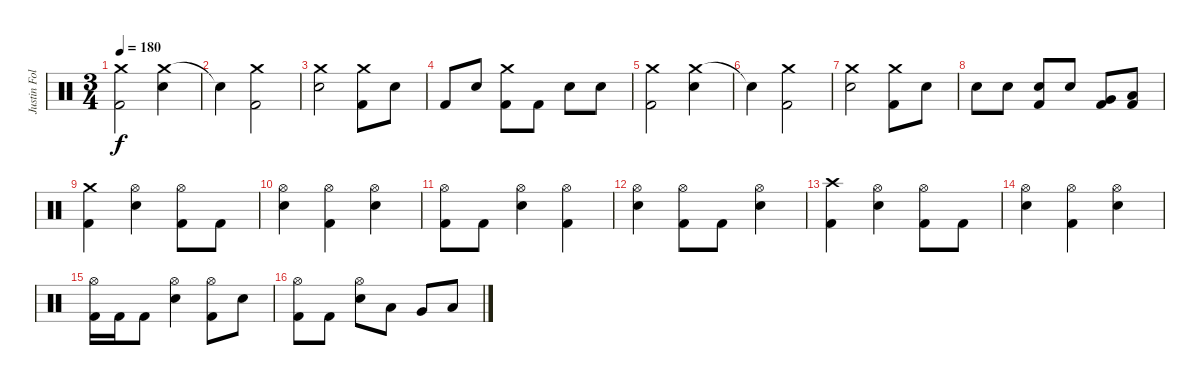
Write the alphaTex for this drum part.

\track ("Justin Foley" "Justin Fol") {instrument percussion}
\staff {score}
\articulation defaults
\ts (3 4)
\tempo 180
\clef neutral
\ks c
("Crash medium (hit)" "Kick (hit) 2").2{dy f} ("Crash medium (hit)" "Electric Snare (hit)").4 |
"Snare (hit)"{t}.4 ("Crash medium (hit)" "Kick (hit) 2").2 |
("Crash medium (hit)" "Electric Snare (hit)").2 ("Crash medium (hit)" "Kick (hit) 2").8 "Electric Snare (hit)".8 |
"Kick (hit) 2".8 "Electric Snare (hit)".8 ("Crash medium (hit)" "Kick (hit) 2").8 "Kick (hit) 2".8 "Electric Snare (hit)".8 "Electric Snare (hit)".8 |
("Crash medium (hit)" "Kick (hit) 2").2 ("Crash medium (hit)" "Electric Snare (hit)").4 |
"Snare (hit)"{t}.4 ("Crash medium (hit)" "Kick (hit) 2").2 |
("Crash medium (hit)" "Electric Snare (hit)").2 ("Crash medium (hit)" "Kick (hit) 2").8 "Electric Snare (hit)".8 |
"Electric Snare (hit)".8 "Electric Snare (hit)".8 ("Electric Snare (hit)" "Kick (hit) 2").8 "Electric Snare (hit)".8 ("Very Low Tom (hit)" "Kick (hit) 2").8 ("Low Floor Tom (hit)" "Kick (hit) 2").8 |
("Crash medium (hit)" "Kick (hit) 2").4 ("Hi-Hat (open)" "Electric Snare (hit)").4 ("Hi-Hat (open)" "Kick (hit) 2").8 "Kick (hit) 2".8 |
("Hi-Hat (open)" "Electric Snare (hit)").4 ("Hi-Hat (open)" "Kick (hit) 2").4 ("Hi-Hat (open)" "Electric Snare (hit)").4 |
("Hi-Hat (open)" "Kick (hit) 2").8 "Kick (hit) 2".8 ("Hi-Hat (open)" "Electric Snare (hit)").4 ("Hi-Hat (open)" "Kick (hit) 2").4 |
("Hi-Hat (open)" "Electric Snare (hit)").4 ("Hi-Hat (open)" "Kick (hit) 2").8 "Kick (hit) 2".8 ("Hi-Hat (open)" "Electric Snare (hit)").4 |
("Crash high (hit)" "Kick (hit) 2").4 ("Hi-Hat (open)" "Electric Snare (hit)").4 ("Hi-Hat (open)" "Kick (hit) 2").8 "Kick (hit) 2".8 |
("Hi-Hat (open)" "Electric Snare (hit)").4 ("Hi-Hat (open)" "Kick (hit) 2").4 ("Hi-Hat (open)" "Electric Snare (hit)").4 |
("Hi-Hat (open)" "Kick (hit) 2").16 "Kick (hit) 2".16 "Kick (hit) 2".8 ("Hi-Hat (open)" "Electric Snare (hit)").4 ("Hi-Hat (open)" "Kick (hit) 2").8 "Electric Snare (hit)".8 |
("Hi-Hat (open)" "Kick (hit) 2").8 "Kick (hit) 2".8 ("Hi-Hat (open)" "Electric Snare (hit)").8 "Low Tom (hit)".8 "Very Low Tom (hit)".8 "Low Floor Tom (hit)".8
